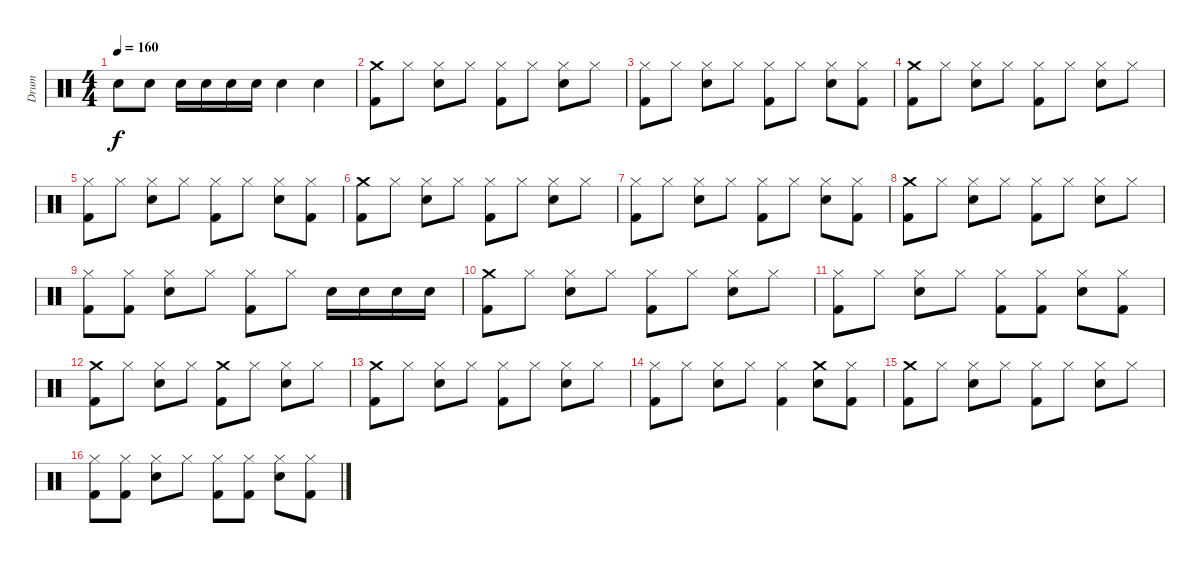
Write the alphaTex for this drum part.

\track ("Drum" "Drum") {instrument percussion}
\staff {score}
\articulation defaults
\ts (4 4)
\tempo 160
\clef neutral
\ks c "Snare (hit) 2".8{dy f} "Snare (hit) 2".8 "Snare (hit) 2".16 "Snare (hit) 2".16 "Snare (hit) 2".16 "Snare (hit) 2".16 "Snare (hit) 2".4 "Snare (hit) 2".4
|
("Crash medium (hit)" "Kick (hit) 2").8 "Hi-Hat (closed)".8 ("Hi-Hat (closed)" "Snare (hit) 2").8 "Hi-Hat (closed)".8 ("Hi-Hat (closed)" "Kick (hit) 2").8 "Hi-Hat (closed)".8 ("Hi-Hat (closed)" "Snare (hit) 2").8 "Hi-Hat (closed)".8 |
("Hi-Hat (closed)" "Kick (hit) 2").8 "Hi-Hat (closed)".8 ("Hi-Hat (closed)" "Snare (hit) 2").8 "Hi-Hat (closed)".8 ("Hi-Hat (closed)" "Kick (hit) 2").8 "Hi-Hat (closed)".8 ("Hi-Hat (closed)" "Snare (hit) 2").8 ("Hi-Hat (closed)" "Kick (hit) 2").8 |
("Crash medium (hit)" "Kick (hit) 2").8 "Hi-Hat (closed)".8 ("Hi-Hat (closed)" "Snare (hit) 2").8 "Hi-Hat (closed)".8 ("Hi-Hat (closed)" "Kick (hit) 2").8 "Hi-Hat (closed)".8 ("Hi-Hat (closed)" "Snare (hit) 2").8 "Hi-Hat (closed)".8 |
("Hi-Hat (closed)" "Kick (hit) 2").8 "Hi-Hat (closed)".8 ("Hi-Hat (closed)" "Snare (hit) 2").8 "Hi-Hat (closed)".8 ("Hi-Hat (closed)" "Kick (hit) 2").8 "Hi-Hat (closed)".8 ("Hi-Hat (closed)" "Snare (hit) 2").8 ("Hi-Hat (closed)" "Kick (hit) 2").8 |
("Crash medium (hit)" "Kick (hit) 2").8 "Hi-Hat (closed)".8 ("Hi-Hat (closed)" "Snare (hit) 2").8 "Hi-Hat (closed)".8 ("Hi-Hat (closed)" "Kick (hit) 2").8 "Hi-Hat (closed)".8 ("Hi-Hat (closed)" "Snare (hit) 2").8 "Hi-Hat (closed)".8 |
("Hi-Hat (closed)" "Kick (hit) 2").8 "Hi-Hat (closed)".8 ("Hi-Hat (closed)" "Snare (hit) 2").8 "Hi-Hat (closed)".8 ("Hi-Hat (closed)" "Kick (hit) 2").8 "Hi-Hat (closed)".8 ("Hi-Hat (closed)" "Snare (hit) 2").8 ("Hi-Hat (closed)" "Kick (hit) 2").8 |
("Crash medium (hit)" "Kick (hit) 2").8 "Hi-Hat (closed)".8 ("Hi-Hat (closed)" "Snare (hit) 2").8 "Hi-Hat (closed)".8 ("Hi-Hat (closed)" "Kick (hit) 2").8 "Hi-Hat (closed)".8 ("Hi-Hat (closed)" "Snare (hit) 2").8 "Hi-Hat (closed)".8 |
("Hi-Hat (closed)" "Kick (hit) 2").8 ("Hi-Hat (closed)" "Kick (hit) 2").8 ("Hi-Hat (closed)" "Snare (hit) 2").8 "Hi-Hat (closed)".8 ("Hi-Hat (closed)" "Kick (hit) 2").8 "Hi-Hat (closed)".8 "Snare (hit) 2".16 "Snare (hit) 2".16 "Snare (hit) 2".16 "Snare (hit) 2".16 |
("Crash medium (hit)" "Kick (hit) 2").8 "Hi-Hat (closed)".8 ("Hi-Hat (closed)" "Snare (hit) 2").8 "Hi-Hat (closed)".8 ("Hi-Hat (closed)" "Kick (hit) 2").8 "Hi-Hat (closed)".8 ("Hi-Hat (closed)" "Snare (hit) 2").8 "Hi-Hat (closed)".8 |
("Hi-Hat (closed)" "Kick (hit) 2").8 "Hi-Hat (closed)".8 ("Hi-Hat (closed)" "Snare (hit) 2").8 "Hi-Hat (closed)".8 ("Hi-Hat (closed)" "Kick (hit) 2").8 ("Hi-Hat (closed)" "Kick (hit) 2").8 ("Hi-Hat (closed)" "Snare (hit) 2").8 ("Hi-Hat (closed)" "Kick (hit) 2").8 |
("Crash medium (hit)" "Kick (hit) 2").8 "Hi-Hat (closed)".8 ("Hi-Hat (closed)" "Snare (hit) 2").8 "Hi-Hat (closed)".8 ("Crash medium (hit)" "Kick (hit) 2").8 "Hi-Hat (closed)".8 ("Hi-Hat (closed)" "Snare (hit) 2").8 "Hi-Hat (closed)".8 |
("Crash medium (hit)" "Kick (hit) 2").8 "Hi-Hat (closed)".8 ("Hi-Hat (closed)" "Snare (hit) 2").8 "Hi-Hat (closed)".8 ("Hi-Hat (closed)" "Kick (hit) 2").8 "Hi-Hat (closed)".8 ("Hi-Hat (closed)" "Snare (hit) 2").8 "Hi-Hat (closed)".8 |
("Hi-Hat (closed)" "Kick (hit) 2").8 "Hi-Hat (closed)".8 ("Hi-Hat (closed)" "Snare (hit) 2").8 "Hi-Hat (closed)".8 ("Hi-Hat (closed)" "Kick (hit) 2").4 ("Crash medium (hit)" "Snare (hit) 2").8 ("Hi-Hat (closed)" "Kick (hit) 2").8 |
("Crash medium (hit)" "Kick (hit) 2").8 "Hi-Hat (closed)".8 ("Hi-Hat (closed)" "Snare (hit) 2").8 "Hi-Hat (closed)".8 ("Hi-Hat (closed)" "Kick (hit) 2").8 "Hi-Hat (closed)".8 ("Hi-Hat (closed)" "Snare (hit) 2").8 "Hi-Hat (closed)".8 |
("Hi-Hat (closed)" "Kick (hit) 2").8 ("Hi-Hat (closed)" "Kick (hit) 2").8 ("Hi-Hat (closed)" "Snare (hit) 2").8 "Hi-Hat (closed)".8 ("Hi-Hat (closed)" "Kick (hit) 2").8 ("Hi-Hat (closed)" "Kick (hit) 2").8 ("Hi-Hat (closed)" "Snare (hit) 2").8 ("Hi-Hat (closed)" "Kick (hit) 2").8
